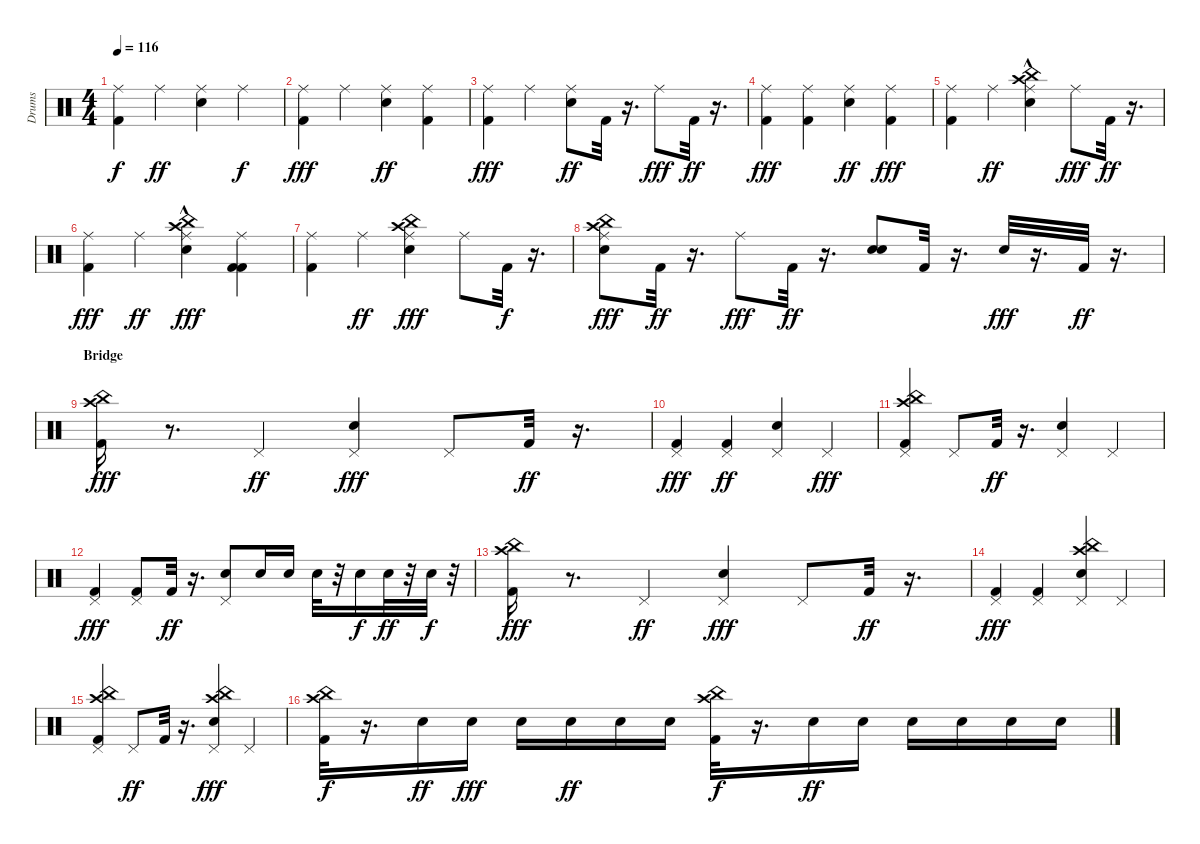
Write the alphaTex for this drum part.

\track ("Drums" "Drums") {instrument percussion}
\staff {score}
\articulation defaults
\ts (4 4)
\tempo 116
\clef neutral
\ks c
("Kick (hit) 2" "Ride (middle)").4{dy f} "Ride (middle)".4{dy ff} ("Snare (hit) 2" "Ride (middle)").4 "Ride (middle)".4{dy f} |
("Kick (hit) 2" "Ride (middle)").4{dy fff} "Ride (middle)".4 ("Snare (hit) 2" "Ride (middle)").4{dy ff} ("Kick (hit) 2" "Ride (middle)").4 |
("Kick (hit) 2" "Ride (middle)").4{dy fff} "Ride (middle)".4 ("Ride (middle)" "Snare (hit) 2").8{dy ff} "Kick (hit) 2".32 r.16{d} "Ride (middle)".8{dy fff} "Kick (hit) 2".32{dy ff} r.16{d} |
("Kick (hit) 2" "Ride (middle)").4{dy fff} ("Kick (hit) 2" "Ride (middle)").4 ("Snare (hit) 2" "Ride (middle)").4{dy ff} ("Kick (hit) 2" "Ride (middle)").4{dy fff} |
("Kick (hit) 2" "Ride (middle)").4 "Ride (middle)".4{dy ff} ("China (hit)"{hac} "Snare (hit) 2" "Ride (middle)" "Crash high (hit)").4 "Ride (middle)".8{dy fff} "Kick (hit) 2".32{dy ff} r.16{d} |
("Kick (hit) 2" "Ride (middle)").4{dy fff} "Ride (middle)".4{dy ff} ("Crash high (hit)"{hac} "China (hit)" "Snare (hit) 2" "Ride (middle)").4{dy fff} ("Kick (hit) 2" "Kick (hit) 2" "Ride (middle)").4 |
("Kick (hit) 2" "Ride (middle)").4 "Ride (middle)".4{dy ff} ("China (hit)" "Crash high (hit)" "Snare (hit) 2" "Ride (middle)").4{dy fff} "Ride (middle)".8 "Kick (hit) 2".32{dy f} r.16{d} |
("Snare (hit) 2" "Crash high (hit)" "China (hit)" "Ride (middle)").8{dy fff} "Kick (hit) 2".32{dy ff} r.16{d} "Ride (middle)".8{dy fff} "Kick (hit) 2".32{dy ff} r.16{d} ("Snare (hit) 2" "Snare (hit) 2").8 "Kick (hit) 2".32 r.16{d} "Snare (hit) 2".32{dy fff} r.16{d} "Kick (hit) 2".32{dy ff} r.16{d} |
\section ("" "Bridge")
("China (hit)" "Crash high (hit)" "Kick (hit) 2").16{dy fff} r.8{d} "Pedal Hi-Hat (hit)".4{dy ff} ("Snare (hit) 2" "Pedal Hi-Hat (hit)").4{dy fff} "Pedal Hi-Hat (hit)".8 "Kick (hit) 2".32{dy ff} r.16{d} |
("Kick (hit) 2" "Pedal Hi-Hat (hit)").4{dy fff} ("Kick (hit) 2" "Pedal Hi-Hat (hit)").4{dy ff} ("Snare (hit) 2" "Pedal Hi-Hat (hit)").4 "Pedal Hi-Hat (hit)".4{dy fff} |
("Crash high (hit)" "China (hit)" "Kick (hit) 2" "Pedal Hi-Hat (hit)").4 "Pedal Hi-Hat (hit)".8 "Kick (hit) 2".32{dy ff} r.16{d} ("Pedal Hi-Hat (hit)" "Snare (hit) 2").4 "Pedal Hi-Hat (hit)".4 |
("Kick (hit) 2" "Pedal Hi-Hat (hit)").4{dy fff} ("Kick (hit) 2" "Pedal Hi-Hat (hit)").8 "Kick (hit) 2".32{dy ff} r.16{d} ("Snare (hit) 2" "Pedal Hi-Hat (hit)").8 "Snare (hit) 2".16 "Snare (hit) 2".16 "Snare (hit) 2".32 r.32 "Snare (hit) 2".16{dy f} "Snare (hit) 2".32{dy ff} r.32 "Snare (hit) 2".32{dy f} r.32 |
("China (hit)" "Crash high (hit)" "Kick (hit) 2").16{dy fff} r.8{d} "Pedal Hi-Hat (hit)".4{dy ff} ("Snare (hit) 2" "Pedal Hi-Hat (hit)").4{dy fff} "Pedal Hi-Hat (hit)".8 "Kick (hit) 2".32{dy ff} r.16{d} |
("Kick (hit) 2" "Pedal Hi-Hat (hit)").4{dy fff} ("Kick (hit) 2" "Pedal Hi-Hat (hit)").4 ("China (hit)" "Crash high (hit)" "Snare (hit) 2" "Pedal Hi-Hat (hit)").4 "Pedal Hi-Hat (hit)".4 |
("Crash high (hit)" "China (hit)" "Kick (hit) 2" "Pedal Hi-Hat (hit)").4 "Pedal Hi-Hat (hit)".8{dy ff} "Kick (hit) 2".32 r.16{d} ("China (hit)" "Crash high (hit)" "Snare (hit) 2" "Pedal Hi-Hat (hit)").4{dy fff} "Pedal Hi-Hat (hit)".4 |
("Crash high (hit)" "China (hit)" "Kick (hit) 2").32{dy f} r.16{d} "Snare (hit) 2".16{dy ff} "Snare (hit) 2".16{dy fff} "Snare (hit) 2".16 "Snare (hit) 2".16{dy ff} "Snare (hit) 2".16 "Snare (hit) 2".16 ("Crash high (hit)" "China (hit)" "Kick (hit) 2").32{dy f} r.16{d} "Snare (hit) 2".16{dy ff} "Snare (hit) 2".16 "Snare (hit) 2".16 "Snare (hit) 2".16 "Snare (hit) 2".16 "Snare (hit) 2".16
